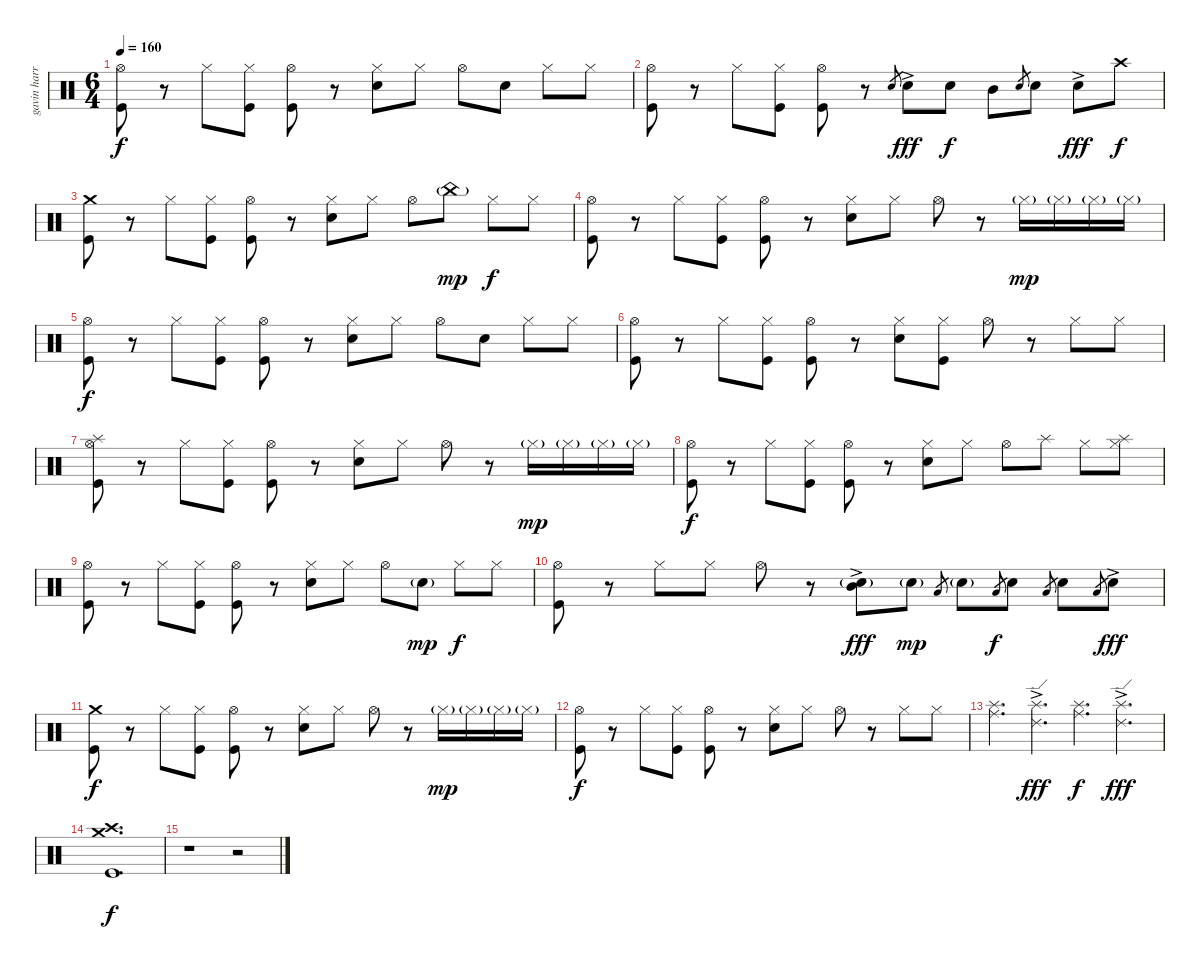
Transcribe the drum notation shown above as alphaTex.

\track ("gavin harrison ( drum ) " "gavin harr") {instrument percussion}
\staff {score}
\articulation defaults
\ts (6 4)
\tempo 160
\clef neutral
\ks c
("Hi-Hat (open)" "Kick (hit)").8{dy f} r.8 "Hi-Hat (closed)".8 ("Hi-Hat (closed)" "Kick (hit)").8 ("Hi-Hat (open)" "Kick (hit)").8 r.8 ("Hi-Hat (closed)" "Snare (hit) 2").8 "Hi-Hat (closed)".8 "Hi-Hat (open)".8 "Snare (hit) 2".8 "Hi-Hat (closed)".8 "Hi-Hat (closed)".8 |
("Hi-Hat (open)" "Kick (hit)").8 r.8 "Hi-Hat (closed)".8 ("Hi-Hat (closed)" "Kick (hit)").8 ("Hi-Hat (open)" "Kick (hit)").8 r.8 "Snare (hit) 2".8{gr} "Snare (hit) 2"{ac}.8{dy fff} "Snare (hit) 2".8{dy f} "Mid Tom (hit)".8 "Snare (hit) 2".8{gr} "Snare (hit) 2".8 "Snare (hit) 2"{ac}.8{dy fff} "Crash high (hit)".8{dy f} |
("Crash medium (hit)" "Kick (hit)").8 r.8 "Hi-Hat (closed)".8 ("Hi-Hat (closed)" "Kick (hit)").8 ("Hi-Hat (open)" "Kick (hit)").8 r.8 ("Hi-Hat (closed)" "Snare (hit) 2").8 "Hi-Hat (closed)".8 "Hi-Hat (open)".8 "China (hit)"{g}.8{dy mp} "Hi-Hat (closed)".8{dy f} "Hi-Hat (closed)".8 |
("Hi-Hat (open)" "Kick (hit)").8 r.8 "Hi-Hat (closed)".8 ("Hi-Hat (closed)" "Kick (hit)").8 ("Hi-Hat (open)" "Kick (hit)").8 r.8 ("Hi-Hat (closed)" "Snare (hit) 2").8 "Hi-Hat (closed)".8 "Hi-Hat (open)".8 r.8 "Hi-Hat (closed)"{g}.16{dy mp} "Hi-Hat (closed)"{g}.16 "Hi-Hat (closed)"{g}.16 "Hi-Hat (closed)"{g}.16 |
("Hi-Hat (open)" "Kick (hit)").8{dy f} r.8 "Hi-Hat (closed)".8 ("Hi-Hat (closed)" "Kick (hit)").8 ("Hi-Hat (open)" "Kick (hit)").8 r.8 ("Hi-Hat (closed)" "Snare (hit) 2").8 "Hi-Hat (closed)".8 "Hi-Hat (open)".8 "Snare (hit) 2".8 "Hi-Hat (closed)".8 "Hi-Hat (closed)".8 |
("Hi-Hat (open)" "Kick (hit)").8 r.8 "Hi-Hat (closed)".8 ("Hi-Hat (closed)" "Kick (hit)").8 ("Hi-Hat (open)" "Kick (hit)").8 r.8 ("Hi-Hat (closed)" "Snare (hit) 2").8 ("Hi-Hat (closed)" "Kick (hit)").8 "Hi-Hat (open)".8 r.8 "Hi-Hat (closed)".8 "Hi-Hat (closed)".8 |
("Hi-Hat (open)" "Splash (hit)" "Kick (hit)").8 r.8 "Hi-Hat (closed)".8 ("Hi-Hat (closed)" "Kick (hit)").8 ("Hi-Hat (open)" "Kick (hit)").8 r.8 ("Hi-Hat (closed)" "Snare (hit) 2").8 "Hi-Hat (closed)".8 "Hi-Hat (open)".8 r.8 "Hi-Hat (closed)"{g}.16{dy mp} "Hi-Hat (closed)"{g}.16 "Hi-Hat (closed)"{g}.16 "Hi-Hat (closed)"{g}.16 |
("Hi-Hat (open)" "Kick (hit)").8{dy f} r.8 "Hi-Hat (closed)".8 ("Hi-Hat (closed)" "Kick (hit)").8 ("Hi-Hat (open)" "Kick (hit)").8 r.8 ("Hi-Hat (closed)" "Snare (hit) 2").8 "Hi-Hat (closed)".8 "Hi-Hat (open)".8 "Splash (hit)".8 "Hi-Hat (closed)".8 ("Hi-Hat (closed)" "Splash (hit)").8 |
("Hi-Hat (open)" "Kick (hit)").8 r.8 "Hi-Hat (closed)".8 ("Hi-Hat (closed)" "Kick (hit)").8 ("Hi-Hat (open)" "Kick (hit)").8 r.8 ("Hi-Hat (closed)" "Snare (hit) 2").8 "Hi-Hat (closed)".8 "Hi-Hat (open)".8 "Snare (hit) 2"{g}.8{dy mp} "Hi-Hat (closed)".8{dy f} "Hi-Hat (closed)".8 |
("Hi-Hat (open)" "Kick (hit)").8 r.8 "Hi-Hat (closed)".8 "Hi-Hat (closed)".8 "Hi-Hat (open)".8 r.8 ("Snare (hit) 2"{g} "Mid Tom (hit)"{ac}).8{dy fff} "Snare (hit) 2"{g}.8{dy mp} "Low Tom (hit)".8{gr} "Snare (hit) 2"{g}.8 "Low Tom (hit)".8{gr dy f} "Snare (hit) 2".8 "Low Tom (hit)".8{gr} "Snare (hit) 2".8 "Low Tom (hit)".8{gr} "Snare (hit) 2"{ac}.8{dy fff} |
("Crash medium (hit)" "Kick (hit)").8{dy f} r.8 "Hi-Hat (closed)".8 ("Hi-Hat (closed)" "Kick (hit)").8 ("Hi-Hat (open)" "Kick (hit)").8 r.8 ("Hi-Hat (closed)" "Snare (hit) 2").8 "Hi-Hat (closed)".8 "Hi-Hat (open)".8 r.8 "Hi-Hat (closed)"{g}.16{dy mp} "Hi-Hat (closed)"{g}.16 "Hi-Hat (closed)"{g}.16 "Hi-Hat (closed)"{g}.16 |
("Hi-Hat (open)" "Kick (hit)").8{dy f} r.8 "Hi-Hat (closed)".8 ("Hi-Hat (closed)" "Kick (hit)").8 ("Hi-Hat (open)" "Kick (hit)").8 r.8 ("Hi-Hat (closed)" "Snare (hit) 2").8 "Hi-Hat (closed)".8 "Hi-Hat (open)".8 r.8 "Hi-Hat (closed)".8 "Hi-Hat (closed)".8 |
("Splash (hit)" "Ride (middle)").4{d} ("Splash (hit)"{ac} "Ride (edge) 2").4{d dy fff} ("Splash (hit)" "Ride (middle)").4{d dy f} ("Splash (hit)" "Ride (edge) 2"{ac}).4{d dy fff} |
("Crash medium (hit)" "Crash high (hit)" "Kick (hit)").1{d dy f} |
r.1 r.2
